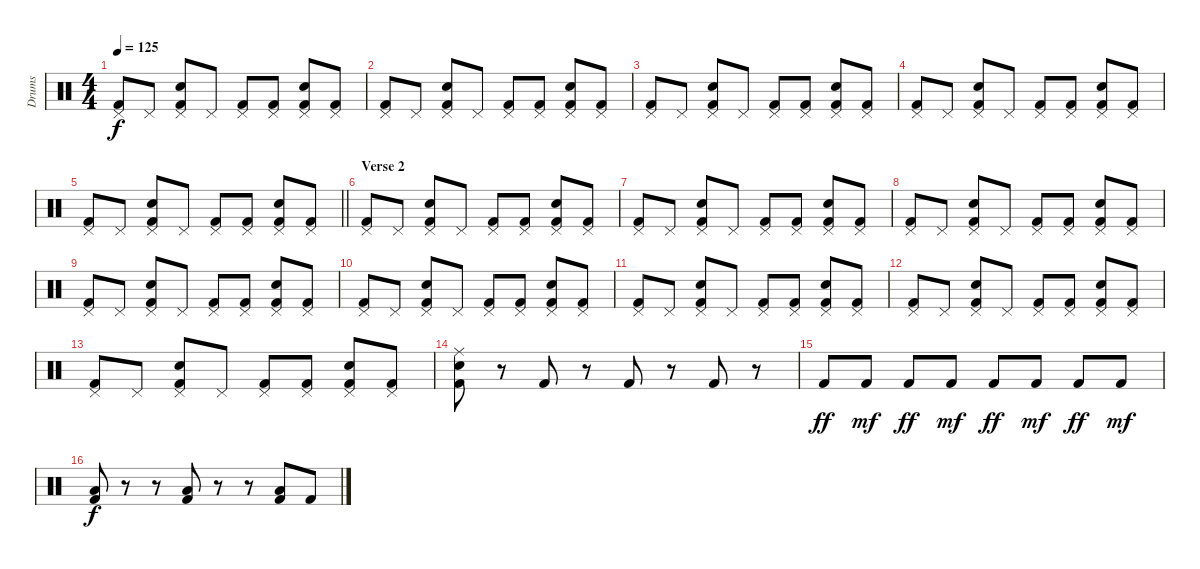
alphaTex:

\track ("Drums" "Drums") {instrument percussion}
\staff {score}
\articulation defaults
\ts (4 4)
\tempo 125
\clef neutral
\ks c
("Pedal Hi-Hat (hit)" "Kick (hit) 2").8{dy f} "Pedal Hi-Hat (hit)".8 ("Pedal Hi-Hat (hit)" "Snare (hit) 2" "Kick (hit) 2").8 "Pedal Hi-Hat (hit)".8 ("Pedal Hi-Hat (hit)" "Kick (hit) 2").8 ("Pedal Hi-Hat (hit)" "Kick (hit) 2").8 ("Pedal Hi-Hat (hit)" "Snare (hit) 2" "Kick (hit) 2").8 ("Pedal Hi-Hat (hit)" "Kick (hit) 2").8 |
("Pedal Hi-Hat (hit)" "Kick (hit) 2").8 "Pedal Hi-Hat (hit)".8 ("Pedal Hi-Hat (hit)" "Snare (hit) 2" "Kick (hit) 2").8 "Pedal Hi-Hat (hit)".8 ("Pedal Hi-Hat (hit)" "Kick (hit) 2").8 ("Pedal Hi-Hat (hit)" "Kick (hit) 2").8 ("Pedal Hi-Hat (hit)" "Snare (hit) 2" "Kick (hit) 2").8 ("Pedal Hi-Hat (hit)" "Kick (hit) 2").8 |
("Pedal Hi-Hat (hit)" "Kick (hit) 2").8 "Pedal Hi-Hat (hit)".8 ("Pedal Hi-Hat (hit)" "Snare (hit) 2" "Kick (hit) 2").8 "Pedal Hi-Hat (hit)".8 ("Pedal Hi-Hat (hit)" "Kick (hit) 2").8 ("Pedal Hi-Hat (hit)" "Kick (hit) 2").8 ("Pedal Hi-Hat (hit)" "Snare (hit) 2" "Kick (hit) 2").8 ("Pedal Hi-Hat (hit)" "Kick (hit) 2").8 |
("Pedal Hi-Hat (hit)" "Kick (hit) 2").8 "Pedal Hi-Hat (hit)".8 ("Pedal Hi-Hat (hit)" "Snare (hit) 2" "Kick (hit) 2").8 "Pedal Hi-Hat (hit)".8 ("Pedal Hi-Hat (hit)" "Kick (hit) 2").8 ("Pedal Hi-Hat (hit)" "Kick (hit) 2").8 ("Pedal Hi-Hat (hit)" "Snare (hit) 2" "Kick (hit) 2").8 ("Pedal Hi-Hat (hit)" "Kick (hit) 2").8 |
\barLineRight lightlight
("Pedal Hi-Hat (hit)" "Kick (hit) 2").8 "Pedal Hi-Hat (hit)".8 ("Pedal Hi-Hat (hit)" "Snare (hit) 2" "Kick (hit) 2").8 "Pedal Hi-Hat (hit)".8 ("Pedal Hi-Hat (hit)" "Kick (hit) 2").8 ("Pedal Hi-Hat (hit)" "Kick (hit) 2").8 ("Pedal Hi-Hat (hit)" "Snare (hit) 2" "Kick (hit) 2").8 ("Pedal Hi-Hat (hit)" "Kick (hit) 2").8 |
\section ("" "Verse 2")
("Pedal Hi-Hat (hit)" "Kick (hit) 2").8 "Pedal Hi-Hat (hit)".8 ("Pedal Hi-Hat (hit)" "Snare (hit) 2" "Kick (hit) 2").8 "Pedal Hi-Hat (hit)".8 ("Pedal Hi-Hat (hit)" "Kick (hit) 2").8 ("Pedal Hi-Hat (hit)" "Kick (hit) 2").8 ("Pedal Hi-Hat (hit)" "Snare (hit) 2" "Kick (hit) 2").8 ("Pedal Hi-Hat (hit)" "Kick (hit) 2").8 |
("Pedal Hi-Hat (hit)" "Kick (hit) 2").8 "Pedal Hi-Hat (hit)".8 ("Pedal Hi-Hat (hit)" "Snare (hit) 2" "Kick (hit) 2").8 "Pedal Hi-Hat (hit)".8 ("Pedal Hi-Hat (hit)" "Kick (hit) 2").8 ("Pedal Hi-Hat (hit)" "Kick (hit) 2").8 ("Pedal Hi-Hat (hit)" "Snare (hit) 2" "Kick (hit) 2").8 ("Pedal Hi-Hat (hit)" "Kick (hit) 2").8 |
("Pedal Hi-Hat (hit)" "Kick (hit) 2").8 "Pedal Hi-Hat (hit)".8 ("Pedal Hi-Hat (hit)" "Snare (hit) 2" "Kick (hit) 2").8 "Pedal Hi-Hat (hit)".8 ("Pedal Hi-Hat (hit)" "Kick (hit) 2").8 ("Pedal Hi-Hat (hit)" "Kick (hit) 2").8 ("Pedal Hi-Hat (hit)" "Snare (hit) 2" "Kick (hit) 2").8 ("Pedal Hi-Hat (hit)" "Kick (hit) 2").8 |
("Pedal Hi-Hat (hit)" "Kick (hit) 2").8 "Pedal Hi-Hat (hit)".8 ("Pedal Hi-Hat (hit)" "Snare (hit) 2" "Kick (hit) 2").8 "Pedal Hi-Hat (hit)".8 ("Pedal Hi-Hat (hit)" "Kick (hit) 2").8 ("Pedal Hi-Hat (hit)" "Kick (hit) 2").8 ("Pedal Hi-Hat (hit)" "Snare (hit) 2" "Kick (hit) 2").8 ("Pedal Hi-Hat (hit)" "Kick (hit) 2").8 |
("Pedal Hi-Hat (hit)" "Kick (hit) 2").8 "Pedal Hi-Hat (hit)".8 ("Pedal Hi-Hat (hit)" "Snare (hit) 2" "Kick (hit) 2").8 "Pedal Hi-Hat (hit)".8 ("Pedal Hi-Hat (hit)" "Kick (hit) 2").8 ("Pedal Hi-Hat (hit)" "Kick (hit) 2").8 ("Pedal Hi-Hat (hit)" "Snare (hit) 2" "Kick (hit) 2").8 ("Pedal Hi-Hat (hit)" "Kick (hit) 2").8 |
("Pedal Hi-Hat (hit)" "Kick (hit) 2").8 "Pedal Hi-Hat (hit)".8 ("Pedal Hi-Hat (hit)" "Snare (hit) 2" "Kick (hit) 2").8 "Pedal Hi-Hat (hit)".8 ("Pedal Hi-Hat (hit)" "Kick (hit) 2").8 ("Pedal Hi-Hat (hit)" "Kick (hit) 2").8 ("Pedal Hi-Hat (hit)" "Snare (hit) 2" "Kick (hit) 2").8 ("Pedal Hi-Hat (hit)" "Kick (hit) 2").8 |
("Pedal Hi-Hat (hit)" "Kick (hit) 2").8 "Pedal Hi-Hat (hit)".8 ("Pedal Hi-Hat (hit)" "Snare (hit) 2" "Kick (hit) 2").8 "Pedal Hi-Hat (hit)".8 ("Pedal Hi-Hat (hit)" "Kick (hit) 2").8 ("Pedal Hi-Hat (hit)" "Kick (hit) 2").8 ("Pedal Hi-Hat (hit)" "Snare (hit) 2" "Kick (hit) 2").8 ("Pedal Hi-Hat (hit)" "Kick (hit) 2").8 |
("Pedal Hi-Hat (hit)" "Kick (hit) 2").8 "Pedal Hi-Hat (hit)".8 ("Pedal Hi-Hat (hit)" "Snare (hit) 2" "Kick (hit) 2").8 "Pedal Hi-Hat (hit)".8 ("Pedal Hi-Hat (hit)" "Kick (hit) 2").8 ("Pedal Hi-Hat (hit)" "Kick (hit) 2").8 ("Pedal Hi-Hat (hit)" "Snare (hit) 2" "Kick (hit) 2").8 ("Pedal Hi-Hat (hit)" "Kick (hit) 2").8 |
("Ride (middle)" "Snare (hit) 2" "Kick (hit) 2").8 r.8 "Kick (hit) 2".8 r.8 "Kick (hit) 2".8 r.8 "Kick (hit) 2".8 r.8 |
"Kick (hit) 2".8{dy ff} "Kick (hit) 2".8{dy mf} "Kick (hit) 2".8{dy ff} "Kick (hit) 2".8{dy mf} "Kick (hit) 2".8{dy ff} "Kick (hit) 2".8{dy mf} "Kick (hit) 2".8{dy ff} "Kick (hit) 2".8{dy mf} |
("Low Tom (hit)" "Kick (hit) 2").8{dy f} r.8 r.8 ("Low Tom (hit)" "Kick (hit) 2").8 r.8 r.8 ("Low Tom (hit)" "Kick (hit) 2").8 "Kick (hit) 2".8
